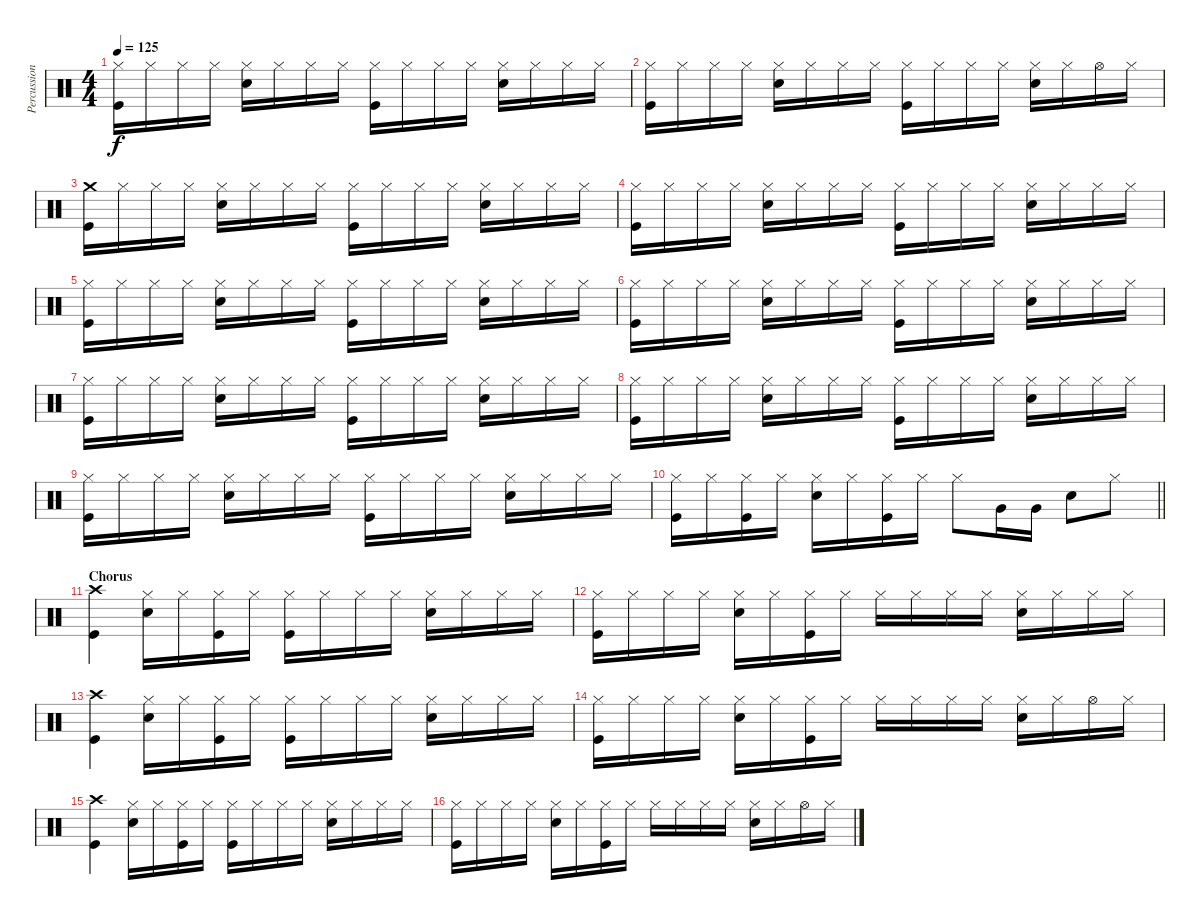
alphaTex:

\track ("Percussion" "Percussion") {instrument percussion}
\staff {score}
\articulation defaults
\ts (4 4)
\tempo 125
\clef neutral
\ks c
("Kick (hit)" "Hi-Hat (closed)").16{dy f} "Hi-Hat (closed)".16 "Hi-Hat (closed)".16 "Hi-Hat (closed)".16 ("Hi-Hat (closed)" "Snare (hit) 2").16 "Hi-Hat (closed)".16 "Hi-Hat (closed)".16 "Hi-Hat (closed)".16 ("Kick (hit)" "Hi-Hat (closed)").16 "Hi-Hat (closed)".16 "Hi-Hat (closed)".16 "Hi-Hat (closed)".16 ("Hi-Hat (closed)" "Snare (hit) 2").16 "Hi-Hat (closed)".16 "Hi-Hat (closed)".16 "Hi-Hat (closed)".16 |
("Kick (hit)" "Hi-Hat (closed)").16 "Hi-Hat (closed)".16 "Hi-Hat (closed)".16 "Hi-Hat (closed)".16 ("Hi-Hat (closed)" "Snare (hit) 2").16 "Hi-Hat (closed)".16 "Hi-Hat (closed)".16 "Hi-Hat (closed)".16 ("Kick (hit)" "Hi-Hat (closed)").16 "Hi-Hat (closed)".16 "Hi-Hat (closed)".16 "Hi-Hat (closed)".16 ("Hi-Hat (closed)" "Snare (hit) 2").16 "Hi-Hat (closed)".16 "Hi-Hat (open)".16 "Hi-Hat (closed)".16 |
("Kick (hit)" "Crash medium (hit)").16 "Hi-Hat (closed)".16 "Hi-Hat (closed)".16 "Hi-Hat (closed)".16 ("Hi-Hat (closed)" "Snare (hit) 2").16 "Hi-Hat (closed)".16 "Hi-Hat (closed)".16 "Hi-Hat (closed)".16 ("Kick (hit)" "Hi-Hat (closed)").16 "Hi-Hat (closed)".16 "Hi-Hat (closed)".16 "Hi-Hat (closed)".16 ("Hi-Hat (closed)" "Snare (hit) 2").16 "Hi-Hat (closed)".16 "Hi-Hat (closed)".16 "Hi-Hat (closed)".16 |
("Kick (hit)" "Hi-Hat (closed)").16 "Hi-Hat (closed)".16 "Hi-Hat (closed)".16 "Hi-Hat (closed)".16 ("Hi-Hat (closed)" "Snare (hit) 2").16 "Hi-Hat (closed)".16 "Hi-Hat (closed)".16 "Hi-Hat (closed)".16 ("Kick (hit)" "Hi-Hat (closed)").16 "Hi-Hat (closed)".16 "Hi-Hat (closed)".16 "Hi-Hat (closed)".16 ("Hi-Hat (closed)" "Snare (hit) 2").16 "Hi-Hat (closed)".16 "Hi-Hat (closed)".16 "Hi-Hat (closed)".16 |
("Kick (hit)" "Hi-Hat (closed)").16 "Hi-Hat (closed)".16 "Hi-Hat (closed)".16 "Hi-Hat (closed)".16 ("Hi-Hat (closed)" "Snare (hit) 2").16 "Hi-Hat (closed)".16 "Hi-Hat (closed)".16 "Hi-Hat (closed)".16 ("Kick (hit)" "Hi-Hat (closed)").16 "Hi-Hat (closed)".16 "Hi-Hat (closed)".16 "Hi-Hat (closed)".16 ("Hi-Hat (closed)" "Snare (hit) 2").16 "Hi-Hat (closed)".16 "Hi-Hat (closed)".16 "Hi-Hat (closed)".16 |
("Kick (hit)" "Hi-Hat (closed)").16 "Hi-Hat (closed)".16 "Hi-Hat (closed)".16 "Hi-Hat (closed)".16 ("Hi-Hat (closed)" "Snare (hit) 2").16 "Hi-Hat (closed)".16 "Hi-Hat (closed)".16 "Hi-Hat (closed)".16 ("Kick (hit)" "Hi-Hat (closed)").16 "Hi-Hat (closed)".16 "Hi-Hat (closed)".16 "Hi-Hat (closed)".16 ("Hi-Hat (closed)" "Snare (hit) 2").16 "Hi-Hat (closed)".16 "Hi-Hat (closed)".16 "Hi-Hat (closed)".16 |
("Kick (hit)" "Hi-Hat (closed)").16 "Hi-Hat (closed)".16 "Hi-Hat (closed)".16 "Hi-Hat (closed)".16 ("Hi-Hat (closed)" "Snare (hit) 2").16 "Hi-Hat (closed)".16 "Hi-Hat (closed)".16 "Hi-Hat (closed)".16 ("Kick (hit)" "Hi-Hat (closed)").16 "Hi-Hat (closed)".16 "Hi-Hat (closed)".16 "Hi-Hat (closed)".16 ("Hi-Hat (closed)" "Snare (hit) 2").16 "Hi-Hat (closed)".16 "Hi-Hat (closed)".16 "Hi-Hat (closed)".16 |
("Kick (hit)" "Hi-Hat (closed)").16 "Hi-Hat (closed)".16 "Hi-Hat (closed)".16 "Hi-Hat (closed)".16 ("Hi-Hat (closed)" "Snare (hit) 2").16 "Hi-Hat (closed)".16 "Hi-Hat (closed)".16 "Hi-Hat (closed)".16 ("Kick (hit)" "Hi-Hat (closed)").16 "Hi-Hat (closed)".16 "Hi-Hat (closed)".16 "Hi-Hat (closed)".16 ("Hi-Hat (closed)" "Snare (hit) 2").16 "Hi-Hat (closed)".16 "Hi-Hat (closed)".16 "Hi-Hat (closed)".16 |
("Kick (hit)" "Hi-Hat (closed)").16 "Hi-Hat (closed)".16 "Hi-Hat (closed)".16 "Hi-Hat (closed)".16 ("Hi-Hat (closed)" "Snare (hit) 2").16 "Hi-Hat (closed)".16 "Hi-Hat (closed)".16 "Hi-Hat (closed)".16 ("Kick (hit)" "Hi-Hat (closed)").16 "Hi-Hat (closed)".16 "Hi-Hat (closed)".16 "Hi-Hat (closed)".16 ("Hi-Hat (closed)" "Snare (hit) 2").16 "Hi-Hat (closed)".16 "Hi-Hat (closed)".16 "Hi-Hat (closed)".16 |
\barLineRight lightlight
("Kick (hit)" "Hi-Hat (closed)").16 "Hi-Hat (closed)".16 ("Kick (hit)" "Hi-Hat (closed)").16 "Hi-Hat (closed)".16 ("Hi-Hat (closed)" "Snare (hit) 2").16 "Hi-Hat (closed)".16 ("Kick (hit)" "Hi-Hat (closed)").16 "Hi-Hat (closed)".16 "Hi-Hat (closed)".8 "Very Low Tom (hit)".16 "Very Low Tom (hit)".16 "Snare (hit) 2".8 "Hi-Hat (closed)".8 |
\section ("" "Chorus")
("Kick (hit)" "Crash high (hit)").4 ("Hi-Hat (closed)" "Snare (hit) 2").16 "Hi-Hat (closed)".16 ("Kick (hit)" "Hi-Hat (closed)").16 "Hi-Hat (closed)".16 ("Kick (hit)" "Hi-Hat (closed)").16 "Hi-Hat (closed)".16 "Hi-Hat (closed)".16 "Hi-Hat (closed)".16 ("Hi-Hat (closed)" "Snare (hit) 2").16 "Hi-Hat (closed)".16 "Hi-Hat (closed)".16 "Hi-Hat (closed)".16 |
("Kick (hit)" "Hi-Hat (closed)").16 "Hi-Hat (closed)".16 "Hi-Hat (closed)".16 "Hi-Hat (closed)".16 ("Hi-Hat (closed)" "Snare (hit) 2").16 "Hi-Hat (closed)".16 ("Kick (hit)" "Hi-Hat (closed)").16 "Hi-Hat (closed)".16 "Hi-Hat (closed)".16 "Hi-Hat (closed)".16 "Hi-Hat (closed)".16 "Hi-Hat (closed)".16 ("Hi-Hat (closed)" "Snare (hit) 2").16 "Hi-Hat (closed)".16 "Hi-Hat (closed)".16 "Hi-Hat (closed)".16 |
("Kick (hit)" "Crash high (hit)").4 ("Hi-Hat (closed)" "Snare (hit) 2").16 "Hi-Hat (closed)".16 ("Kick (hit)" "Hi-Hat (closed)").16 "Hi-Hat (closed)".16 ("Kick (hit)" "Hi-Hat (closed)").16 "Hi-Hat (closed)".16 "Hi-Hat (closed)".16 "Hi-Hat (closed)".16 ("Hi-Hat (closed)" "Snare (hit) 2").16 "Hi-Hat (closed)".16 "Hi-Hat (closed)".16 "Hi-Hat (closed)".16 |
("Kick (hit)" "Hi-Hat (closed)").16 "Hi-Hat (closed)".16 "Hi-Hat (closed)".16 "Hi-Hat (closed)".16 ("Hi-Hat (closed)" "Snare (hit) 2").16 "Hi-Hat (closed)".16 ("Kick (hit)" "Hi-Hat (closed)").16 "Hi-Hat (closed)".16 "Hi-Hat (closed)".16 "Hi-Hat (closed)".16 "Hi-Hat (closed)".16 "Hi-Hat (closed)".16 ("Hi-Hat (closed)" "Snare (hit) 2").16 "Hi-Hat (closed)".16 "Hi-Hat (open)".16 "Hi-Hat (closed)".16 |
("Kick (hit)" "Crash high (hit)").4 ("Hi-Hat (closed)" "Snare (hit) 2").16 "Hi-Hat (closed)".16 ("Kick (hit)" "Hi-Hat (closed)").16 "Hi-Hat (closed)".16 ("Kick (hit)" "Hi-Hat (closed)").16 "Hi-Hat (closed)".16 "Hi-Hat (closed)".16 "Hi-Hat (closed)".16 ("Hi-Hat (closed)" "Snare (hit) 2").16 "Hi-Hat (closed)".16 "Hi-Hat (closed)".16 "Hi-Hat (closed)".16 |
("Kick (hit)" "Hi-Hat (closed)").16 "Hi-Hat (closed)".16 "Hi-Hat (closed)".16 "Hi-Hat (closed)".16 ("Hi-Hat (closed)" "Snare (hit) 2").16 "Hi-Hat (closed)".16 ("Kick (hit)" "Hi-Hat (closed)").16 "Hi-Hat (closed)".16 "Hi-Hat (closed)".16 "Hi-Hat (closed)".16 "Hi-Hat (closed)".16 "Hi-Hat (closed)".16 ("Hi-Hat (closed)" "Snare (hit) 2").16 "Hi-Hat (closed)".16 "Hi-Hat (open)".16 "Hi-Hat (closed)".16
